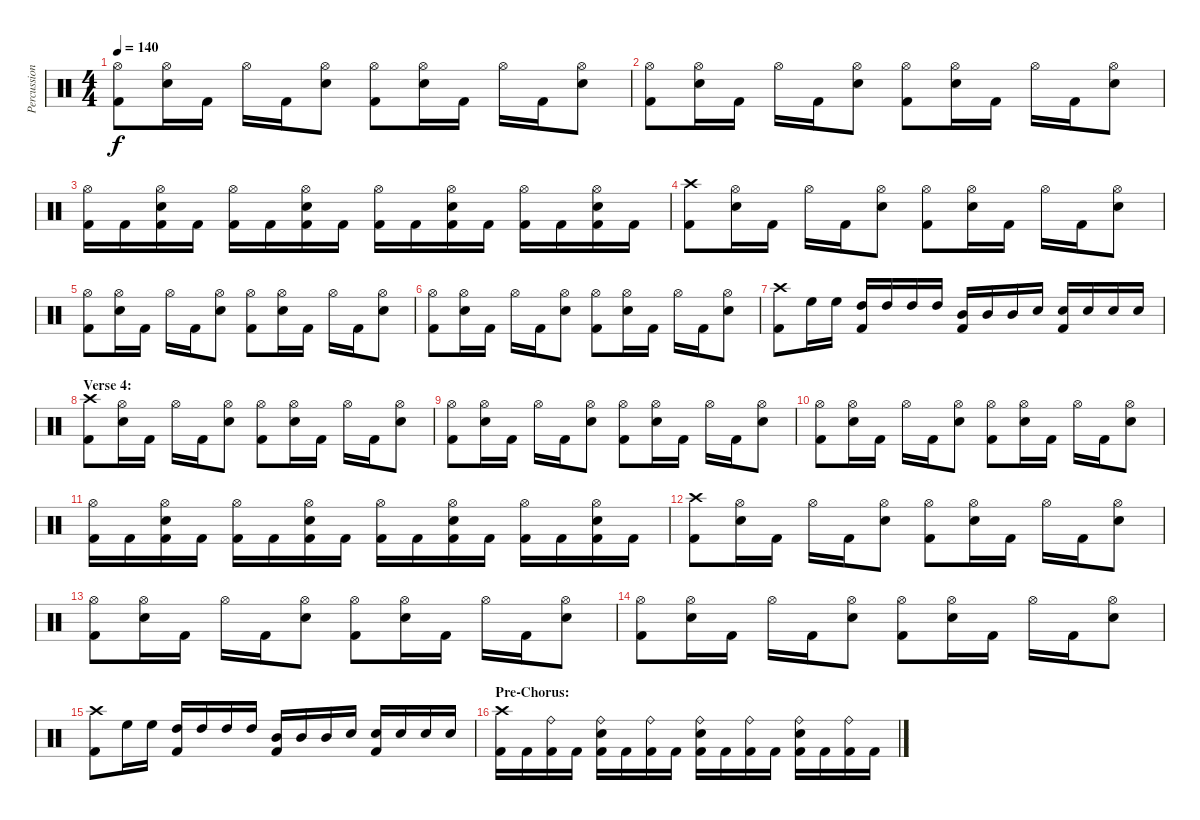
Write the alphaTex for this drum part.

\track ("Percussion" "Percussion") {instrument percussion}
\staff {score}
\articulation defaults
\ts (4 4)
\tempo 140
\clef neutral
\ks c
("Hi-Hat (open)" "Kick (hit) 2").8{dy f} ("Hi-Hat (open)" "Electric Snare (hit)").16 "Kick (hit) 2".16 "Hi-Hat (open)".16 "Kick (hit) 2".16 ("Hi-Hat (open)" "Electric Snare (hit)").8 ("Hi-Hat (open)" "Kick (hit) 2").8 ("Hi-Hat (open)" "Electric Snare (hit)").16 "Kick (hit) 2".16 "Hi-Hat (open)".16 "Kick (hit) 2".16 ("Hi-Hat (open)" "Electric Snare (hit)").8 |
("Hi-Hat (open)" "Kick (hit) 2").8 ("Hi-Hat (open)" "Electric Snare (hit)").16 "Kick (hit) 2".16 "Hi-Hat (open)".16 "Kick (hit) 2".16 ("Hi-Hat (open)" "Electric Snare (hit)").8 ("Hi-Hat (open)" "Kick (hit) 2").8 ("Hi-Hat (open)" "Electric Snare (hit)").16 "Kick (hit) 2".16 "Hi-Hat (open)".16 "Kick (hit) 2".16 ("Hi-Hat (open)" "Electric Snare (hit)").8 |
("Hi-Hat (open)" "Kick (hit) 2").16 "Kick (hit) 2".16 ("Hi-Hat (open)" "Electric Snare (hit)" "Kick (hit) 2").16 "Kick (hit) 2".16 ("Hi-Hat (open)" "Kick (hit) 2").16 "Kick (hit) 2".16 ("Hi-Hat (open)" "Electric Snare (hit)" "Kick (hit) 2").16 "Kick (hit) 2".16 ("Hi-Hat (open)" "Kick (hit) 2").16 "Kick (hit) 2".16 ("Hi-Hat (open)" "Electric Snare (hit)" "Kick (hit) 2").16 "Kick (hit) 2".16 ("Hi-Hat (open)" "Kick (hit) 2").16 "Kick (hit) 2".16 ("Hi-Hat (open)" "Electric Snare (hit)" "Kick (hit) 2").16 "Kick (hit) 2".16 |
("Crash high (hit)" "Kick (hit) 2").8 ("Hi-Hat (open)" "Electric Snare (hit)").16 "Kick (hit) 2".16 "Hi-Hat (open)".16 "Kick (hit) 2".16 ("Hi-Hat (open)" "Electric Snare (hit)").8 ("Hi-Hat (open)" "Kick (hit) 2").8 ("Hi-Hat (open)" "Electric Snare (hit)").16 "Kick (hit) 2".16 "Hi-Hat (open)".16 "Kick (hit) 2".16 ("Hi-Hat (open)" "Electric Snare (hit)").8 |
("Hi-Hat (open)" "Kick (hit) 2").8 ("Hi-Hat (open)" "Electric Snare (hit)").16 "Kick (hit) 2".16 "Hi-Hat (open)".16 "Kick (hit) 2".16 ("Hi-Hat (open)" "Electric Snare (hit)").8 ("Hi-Hat (open)" "Kick (hit) 2").8 ("Hi-Hat (open)" "Electric Snare (hit)").16 "Kick (hit) 2".16 "Hi-Hat (open)".16 "Kick (hit) 2".16 ("Hi-Hat (open)" "Electric Snare (hit)").8 |
("Hi-Hat (open)" "Kick (hit) 2").8 ("Hi-Hat (open)" "Electric Snare (hit)").16 "Kick (hit) 2".16 "Hi-Hat (open)".16 "Kick (hit) 2".16 ("Hi-Hat (open)" "Electric Snare (hit)").8 ("Hi-Hat (open)" "Kick (hit) 2").8 ("Hi-Hat (open)" "Electric Snare (hit)").16 "Kick (hit) 2".16 "Hi-Hat (open)".16 "Kick (hit) 2".16 ("Hi-Hat (open)" "Electric Snare (hit)").8 |
("Crash high (hit)" "Kick (hit) 2").8 "High Floor Tom (hit)".16 "High Floor Tom (hit)".16 ("High Tom (hit)" "Kick (hit) 2").16 "High Tom (hit)".16 "High Tom (hit)".16 "High Tom (hit)".16 ("Mid Tom (hit)" "Kick (hit) 2").16 "Mid Tom (hit)".16 "Mid Tom (hit)".16 "Electric Snare (hit)".16 ("Electric Snare (hit)" "Kick (hit) 2").16 "Electric Snare (hit)".16 "Electric Snare (hit)".16 "Electric Snare (hit)".16 |
\section ("" "Verse 4:")
("Crash high (hit)" "Kick (hit) 2").8 ("Hi-Hat (open)" "Electric Snare (hit)").16 "Kick (hit) 2".16 "Hi-Hat (open)".16 "Kick (hit) 2".16 ("Hi-Hat (open)" "Electric Snare (hit)").8 ("Hi-Hat (open)" "Kick (hit) 2").8 ("Hi-Hat (open)" "Electric Snare (hit)").16 "Kick (hit) 2".16 "Hi-Hat (open)".16 "Kick (hit) 2".16 ("Hi-Hat (open)" "Electric Snare (hit)").8 |
("Hi-Hat (open)" "Kick (hit) 2").8 ("Hi-Hat (open)" "Electric Snare (hit)").16 "Kick (hit) 2".16 "Hi-Hat (open)".16 "Kick (hit) 2".16 ("Hi-Hat (open)" "Electric Snare (hit)").8 ("Hi-Hat (open)" "Kick (hit) 2").8 ("Hi-Hat (open)" "Electric Snare (hit)").16 "Kick (hit) 2".16 "Hi-Hat (open)".16 "Kick (hit) 2".16 ("Hi-Hat (open)" "Electric Snare (hit)").8 |
("Hi-Hat (open)" "Kick (hit) 2").8 ("Hi-Hat (open)" "Electric Snare (hit)").16 "Kick (hit) 2".16 "Hi-Hat (open)".16 "Kick (hit) 2".16 ("Hi-Hat (open)" "Electric Snare (hit)").8 ("Hi-Hat (open)" "Kick (hit) 2").8 ("Hi-Hat (open)" "Electric Snare (hit)").16 "Kick (hit) 2".16 "Hi-Hat (open)".16 "Kick (hit) 2".16 ("Hi-Hat (open)" "Electric Snare (hit)").8 |
("Hi-Hat (open)" "Kick (hit) 2").16 "Kick (hit) 2".16 ("Hi-Hat (open)" "Electric Snare (hit)" "Kick (hit) 2").16 "Kick (hit) 2".16 ("Hi-Hat (open)" "Kick (hit) 2").16 "Kick (hit) 2".16 ("Hi-Hat (open)" "Electric Snare (hit)" "Kick (hit) 2").16 "Kick (hit) 2".16 ("Hi-Hat (open)" "Kick (hit) 2").16 "Kick (hit) 2".16 ("Hi-Hat (open)" "Electric Snare (hit)" "Kick (hit) 2").16 "Kick (hit) 2".16 ("Hi-Hat (open)" "Kick (hit) 2").16 "Kick (hit) 2".16 ("Hi-Hat (open)" "Electric Snare (hit)" "Kick (hit) 2").16 "Kick (hit) 2".16 |
("Crash high (hit)" "Kick (hit) 2").8 ("Hi-Hat (open)" "Electric Snare (hit)").16 "Kick (hit) 2".16 "Hi-Hat (open)".16 "Kick (hit) 2".16 ("Hi-Hat (open)" "Electric Snare (hit)").8 ("Hi-Hat (open)" "Kick (hit) 2").8 ("Hi-Hat (open)" "Electric Snare (hit)").16 "Kick (hit) 2".16 "Hi-Hat (open)".16 "Kick (hit) 2".16 ("Hi-Hat (open)" "Electric Snare (hit)").8 |
("Hi-Hat (open)" "Kick (hit) 2").8 ("Hi-Hat (open)" "Electric Snare (hit)").16 "Kick (hit) 2".16 "Hi-Hat (open)".16 "Kick (hit) 2".16 ("Hi-Hat (open)" "Electric Snare (hit)").8 ("Hi-Hat (open)" "Kick (hit) 2").8 ("Hi-Hat (open)" "Electric Snare (hit)").16 "Kick (hit) 2".16 "Hi-Hat (open)".16 "Kick (hit) 2".16 ("Hi-Hat (open)" "Electric Snare (hit)").8 |
("Hi-Hat (open)" "Kick (hit) 2").8 ("Hi-Hat (open)" "Electric Snare (hit)").16 "Kick (hit) 2".16 "Hi-Hat (open)".16 "Kick (hit) 2".16 ("Hi-Hat (open)" "Electric Snare (hit)").8 ("Hi-Hat (open)" "Kick (hit) 2").8 ("Hi-Hat (open)" "Electric Snare (hit)").16 "Kick (hit) 2".16 "Hi-Hat (open)".16 "Kick (hit) 2".16 ("Hi-Hat (open)" "Electric Snare (hit)").8 |
("Crash high (hit)" "Kick (hit) 2").8 "High Floor Tom (hit)".16 "High Floor Tom (hit)".16 ("High Tom (hit)" "Kick (hit) 2").16 "High Tom (hit)".16 "High Tom (hit)".16 "High Tom (hit)".16 ("Mid Tom (hit)" "Kick (hit) 2").16 "Mid Tom (hit)".16 "Mid Tom (hit)".16 "Electric Snare (hit)".16 ("Electric Snare (hit)" "Kick (hit) 2").16 "Electric Snare (hit)".16 "Electric Snare (hit)".16 "Electric Snare (hit)".16 |
\section ("" "Pre-Chorus:")
("Crash high (hit)" "Kick (hit) 2").16 "Kick (hit) 2".16 ("Ride (bell)" "Kick (hit) 2").16 "Kick (hit) 2".16 ("Ride (bell)" "Electric Snare (hit)" "Kick (hit) 2").16 "Kick (hit) 2".16 ("Ride (bell)" "Kick (hit) 2").16 "Kick (hit) 2".16 ("Ride (bell)" "Electric Snare (hit)" "Kick (hit) 2").16 "Kick (hit) 2".16 ("Ride (bell)" "Kick (hit) 2").16 "Kick (hit) 2".16 ("Ride (bell)" "Electric Snare (hit)" "Kick (hit) 2").16 "Kick (hit) 2".16 ("Ride (bell)" "Kick (hit) 2").16 "Kick (hit) 2".16
